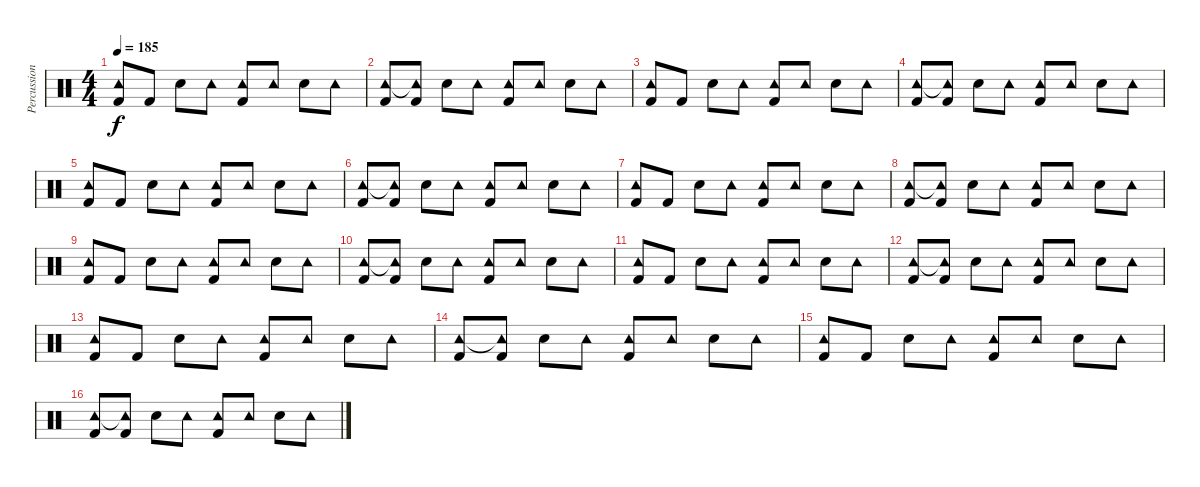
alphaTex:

\track ("Percussion" "Percussion") {instrument percussion}
\staff {score}
\articulation defaults
\ts (4 4)
\tempo 185
\clef neutral
\ks c
("Tambourine (hit)" "Kick (hit) 2").8{dy f} "Kick (hit) 2".8 "Electric Snare (hit)".8 "Tambourine (hit)".8 ("Tambourine (hit)" "Kick (hit) 2").8 "Tambourine (hit)".8 "Snare (hit) 2".8 "Tambourine (hit)".8 |
("Tambourine (hit)" "Kick (hit) 2").8 ("Tambourine (hit)"{t} "Kick (hit) 2").8 "Electric Snare (hit)".8 "Tambourine (hit)".8 ("Tambourine (hit)" "Kick (hit) 2").8 "Tambourine (hit)".8 "Electric Snare (hit)".8 "Tambourine (hit)".8 |
("Tambourine (hit)" "Kick (hit) 2").8 "Kick (hit) 2".8 "Electric Snare (hit)".8 "Tambourine (hit)".8 ("Tambourine (hit)" "Kick (hit) 2").8 "Tambourine (hit)".8 "Snare (hit) 2".8 "Tambourine (hit)".8 |
("Tambourine (hit)" "Kick (hit) 2").8 ("Tambourine (hit)"{t} "Kick (hit) 2").8 "Electric Snare (hit)".8 "Tambourine (hit)".8 ("Tambourine (hit)" "Kick (hit) 2").8 "Tambourine (hit)".8 "Electric Snare (hit)".8 "Tambourine (hit)".8 |
("Tambourine (hit)" "Kick (hit) 2").8 "Kick (hit) 2".8 "Electric Snare (hit)".8 "Tambourine (hit)".8 ("Tambourine (hit)" "Kick (hit) 2").8 "Tambourine (hit)".8 "Snare (hit) 2".8 "Tambourine (hit)".8 |
("Tambourine (hit)" "Kick (hit) 2").8 ("Tambourine (hit)"{t} "Kick (hit) 2").8 "Electric Snare (hit)".8 "Tambourine (hit)".8 ("Tambourine (hit)" "Kick (hit) 2").8 "Tambourine (hit)".8 "Electric Snare (hit)".8 "Tambourine (hit)".8 |
("Tambourine (hit)" "Kick (hit) 2").8 "Kick (hit) 2".8 "Electric Snare (hit)".8 "Tambourine (hit)".8 ("Tambourine (hit)" "Kick (hit) 2").8 "Tambourine (hit)".8 "Snare (hit) 2".8 "Tambourine (hit)".8 |
("Tambourine (hit)" "Kick (hit) 2").8 ("Tambourine (hit)"{t} "Kick (hit) 2").8 "Electric Snare (hit)".8 "Tambourine (hit)".8 ("Tambourine (hit)" "Kick (hit) 2").8 "Tambourine (hit)".8 "Electric Snare (hit)".8 "Tambourine (hit)".8 |
("Tambourine (hit)" "Kick (hit) 2").8 "Kick (hit) 2".8 "Electric Snare (hit)".8 "Tambourine (hit)".8 ("Tambourine (hit)" "Kick (hit) 2").8 "Tambourine (hit)".8 "Snare (hit) 2".8 "Tambourine (hit)".8 |
("Tambourine (hit)" "Kick (hit) 2").8 ("Tambourine (hit)"{t} "Kick (hit) 2").8 "Electric Snare (hit)".8 "Tambourine (hit)".8 ("Tambourine (hit)" "Kick (hit) 2").8 "Tambourine (hit)".8 "Electric Snare (hit)".8 "Tambourine (hit)".8 |
("Tambourine (hit)" "Kick (hit) 2").8 "Kick (hit) 2".8 "Electric Snare (hit)".8 "Tambourine (hit)".8 ("Tambourine (hit)" "Kick (hit) 2").8 "Tambourine (hit)".8 "Snare (hit) 2".8 "Tambourine (hit)".8 |
("Tambourine (hit)" "Kick (hit) 2").8 ("Tambourine (hit)"{t} "Kick (hit) 2").8 "Electric Snare (hit)".8 "Tambourine (hit)".8 ("Tambourine (hit)" "Kick (hit) 2").8 "Tambourine (hit)".8 "Electric Snare (hit)".8 "Tambourine (hit)".8 |
("Tambourine (hit)" "Kick (hit) 2").8 "Kick (hit) 2".8 "Electric Snare (hit)".8 "Tambourine (hit)".8 ("Tambourine (hit)" "Kick (hit) 2").8 "Tambourine (hit)".8 "Snare (hit) 2".8 "Tambourine (hit)".8 |
("Tambourine (hit)" "Kick (hit) 2").8 ("Tambourine (hit)"{t} "Kick (hit) 2").8 "Electric Snare (hit)".8 "Tambourine (hit)".8 ("Tambourine (hit)" "Kick (hit) 2").8 "Tambourine (hit)".8 "Electric Snare (hit)".8 "Tambourine (hit)".8 |
("Tambourine (hit)" "Kick (hit) 2").8 "Kick (hit) 2".8 "Electric Snare (hit)".8 "Tambourine (hit)".8 ("Tambourine (hit)" "Kick (hit) 2").8 "Tambourine (hit)".8 "Snare (hit) 2".8 "Tambourine (hit)".8 |
("Tambourine (hit)" "Kick (hit) 2").8 ("Tambourine (hit)"{t} "Kick (hit) 2").8 "Electric Snare (hit)".8 "Tambourine (hit)".8 ("Tambourine (hit)" "Kick (hit) 2").8 "Tambourine (hit)".8 "Electric Snare (hit)".8 "Tambourine (hit)".8
